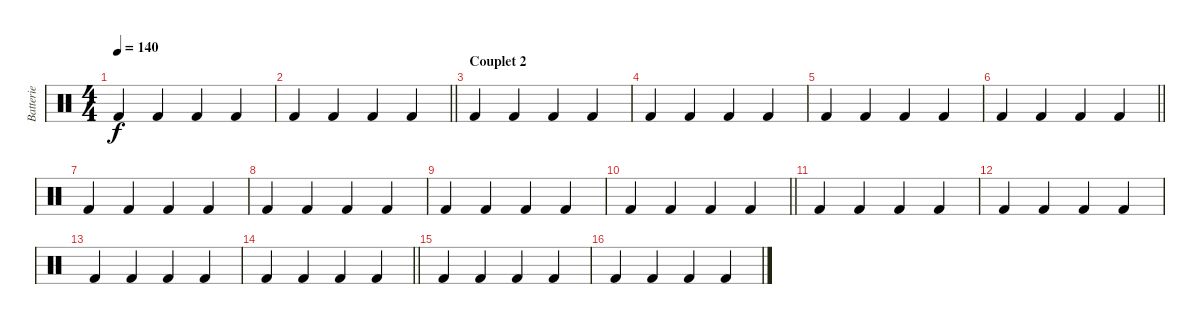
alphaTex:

\track ("Batterie" "Batterie") {instrument percussion}
\staff {score}
\articulation defaults
\ts (4 4)
\tempo 140
\clef neutral
\ks c "Kick (hit) 2".4{dy f} "Kick (hit) 2".4 "Kick (hit) 2".4 "Kick (hit) 2".4
|
\barLineRight lightlight "Kick (hit) 2".4 "Kick (hit) 2".4 "Kick (hit) 2".4 "Kick (hit) 2".4
|
\section ("" "Couplet 2")
"Kick (hit) 2".4 "Kick (hit) 2".4 "Kick (hit) 2".4 "Kick (hit) 2".4 |
"Kick (hit) 2".4 "Kick (hit) 2".4 "Kick (hit) 2".4 "Kick (hit) 2".4 |
"Kick (hit) 2".4 "Kick (hit) 2".4 "Kick (hit) 2".4 "Kick (hit) 2".4 |
\barLineRight lightlight "Kick (hit) 2".4 "Kick (hit) 2".4 "Kick (hit) 2".4 "Kick (hit) 2".4
|
"Kick (hit) 2".4 "Kick (hit) 2".4 "Kick (hit) 2".4 "Kick (hit) 2".4 |
"Kick (hit) 2".4 "Kick (hit) 2".4 "Kick (hit) 2".4 "Kick (hit) 2".4 |
"Kick (hit) 2".4 "Kick (hit) 2".4 "Kick (hit) 2".4 "Kick (hit) 2".4 |
\barLineRight lightlight "Kick (hit) 2".4 "Kick (hit) 2".4 "Kick (hit) 2".4 "Kick (hit) 2".4
|
"Kick (hit) 2".4 "Kick (hit) 2".4 "Kick (hit) 2".4 "Kick (hit) 2".4 |
"Kick (hit) 2".4 "Kick (hit) 2".4 "Kick (hit) 2".4 "Kick (hit) 2".4 |
"Kick (hit) 2".4 "Kick (hit) 2".4 "Kick (hit) 2".4 "Kick (hit) 2".4 |
\barLineRight lightlight "Kick (hit) 2".4 "Kick (hit) 2".4 "Kick (hit) 2".4 "Kick (hit) 2".4
|
"Kick (hit) 2".4 "Kick (hit) 2".4 "Kick (hit) 2".4 "Kick (hit) 2".4 |
"Kick (hit) 2".4 "Kick (hit) 2".4 "Kick (hit) 2".4 "Kick (hit) 2".4
